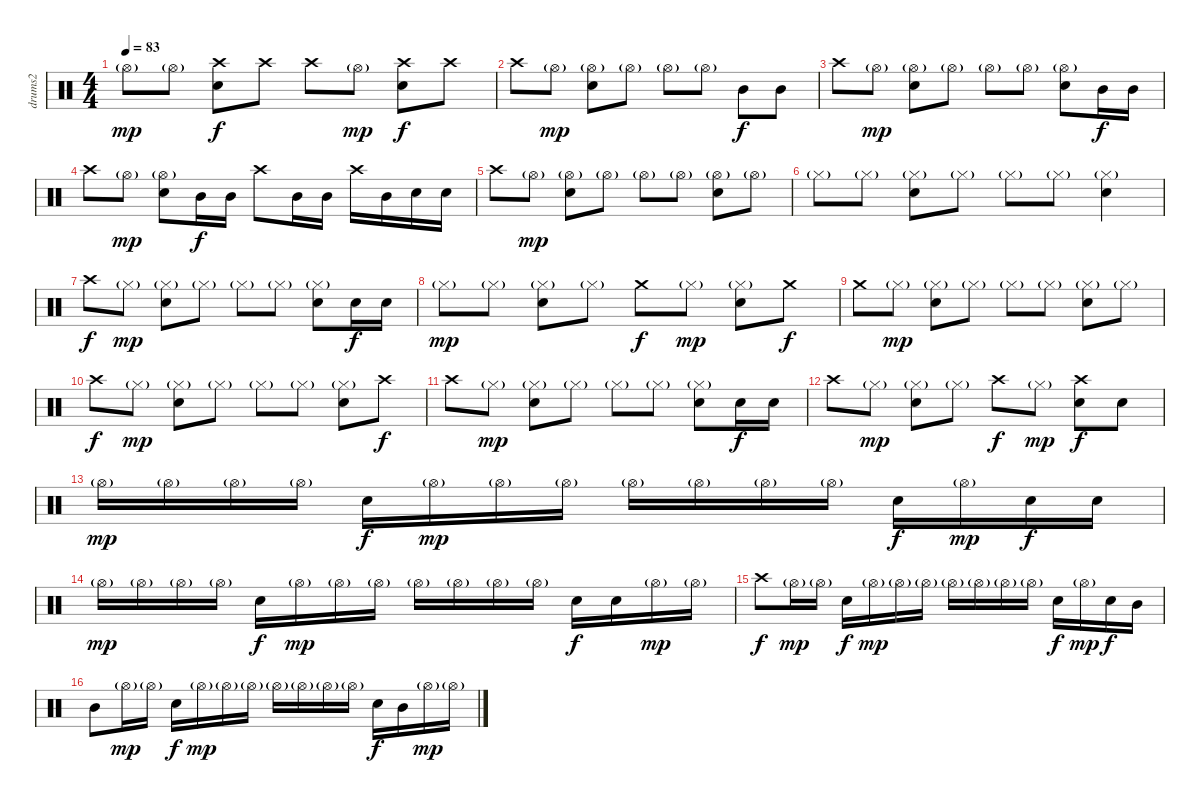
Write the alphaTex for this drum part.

\track ("drums2" "drums2") {instrument percussion}
\staff {score}
\articulation defaults
\ts (4 4)
\tempo 83
\clef neutral
\ks c "Hi-Hat (open)"{g}.8{dy mp} "Hi-Hat (open)"{g}.8
("Crash high (hit)" "Snare (hit) 2").8{dy f} "Crash high (hit)".8 "Crash high (hit)".8 "Hi-Hat (open)"{g}.8{dy mp} ("Crash high (hit)" "Snare (hit) 2").8{dy f} "Crash high (hit)".8 |
"Crash high (hit)".8 "Hi-Hat (open)"{g}.8{dy mp} ("Hi-Hat (open)"{g} "Snare (hit) 2").8 "Hi-Hat (open)"{g}.8 "Hi-Hat (open)"{g}.8 "Hi-Hat (open)"{g}.8 "Mid Tom (hit)".8{dy f} "Mid Tom (hit)".8 |
"Crash high (hit)".8 "Hi-Hat (open)"{g}.8{dy mp} ("Hi-Hat (open)"{g} "Snare (hit) 2").8 "Hi-Hat (open)"{g}.8 "Hi-Hat (open)"{g}.8 "Hi-Hat (open)"{g}.8 ("Hi-Hat (open)"{g} "Snare (hit) 2").8 "Mid Tom (hit)".16{dy f} "Mid Tom (hit)".16 |
"Crash high (hit)".8 "Hi-Hat (open)"{g}.8{dy mp} ("Hi-Hat (open)"{g} "Snare (hit) 2").8 "Mid Tom (hit)".16{dy f} "Mid Tom (hit)".16 "Crash high (hit)".8 "Mid Tom (hit)".16 "Mid Tom (hit)".16 "Crash high (hit)".16 "Mid Tom (hit)".16 "Snare (hit) 2".16 "Snare (hit) 2".16 |
"Crash high (hit)".8 "Hi-Hat (open)"{g}.8{dy mp} ("Hi-Hat (open)"{g} "Snare (hit) 2").8 "Hi-Hat (open)"{g}.8 "Hi-Hat (open)"{g}.8 "Hi-Hat (open)"{g}.8 ("Hi-Hat (open)"{g} "Snare (hit) 2").8 "Hi-Hat (open)"{g}.8 |
"Hi-Hat (closed)"{g}.8 "Hi-Hat (closed)"{g}.8 ("Hi-Hat (closed)"{g} "Snare (hit) 2").8 "Hi-Hat (closed)"{g}.8 "Hi-Hat (closed)"{g}.8 "Hi-Hat (closed)"{g}.8 ("Hi-Hat (closed)"{g} "Snare (hit) 2").4 |
"Crash high (hit)".8{dy f} "Hi-Hat (closed)"{g}.8{dy mp} ("Hi-Hat (closed)"{g} "Snare (hit) 2").8 "Hi-Hat (closed)"{g}.8 "Hi-Hat (closed)"{g}.8 "Hi-Hat (closed)"{g}.8 ("Hi-Hat (closed)"{g} "Snare (hit) 2").8 "Snare (hit) 2".16{dy f} "Snare (hit) 2".16 |
"Hi-Hat (closed)"{g}.8{dy mp} "Hi-Hat (closed)"{g}.8 ("Hi-Hat (closed)"{g} "Snare (hit) 2").8 "Hi-Hat (closed)"{g}.8 "Crash medium (hit)".8{dy f} "Hi-Hat (closed)"{g}.8{dy mp} ("Hi-Hat (closed)"{g} "Snare (hit) 2").8 "Crash medium (hit)".8{dy f} |
"Crash medium (hit)".8 "Hi-Hat (closed)"{g}.8{dy mp} ("Hi-Hat (closed)"{g} "Snare (hit) 2").8 "Hi-Hat (closed)"{g}.8 "Hi-Hat (closed)"{g}.8 "Hi-Hat (closed)"{g}.8 ("Hi-Hat (closed)"{g} "Snare (hit) 2").8 "Hi-Hat (closed)"{g}.8 |
"Crash high (hit)".8{dy f} "Hi-Hat (closed)"{g}.8{dy mp} ("Hi-Hat (closed)"{g} "Snare (hit) 2").8 "Hi-Hat (closed)"{g}.8 "Hi-Hat (closed)"{g}.8 "Hi-Hat (closed)"{g}.8 ("Hi-Hat (closed)"{g} "Snare (hit) 2").8 "Crash high (hit)".8{dy f} |
"Crash high (hit)".8 "Hi-Hat (closed)"{g}.8{dy mp} ("Hi-Hat (closed)"{g} "Snare (hit) 2").8 "Hi-Hat (closed)"{g}.8 "Hi-Hat (closed)"{g}.8 "Hi-Hat (closed)"{g}.8 ("Hi-Hat (closed)"{g} "Snare (hit) 2").8 "Snare (hit) 2".16{dy f} "Snare (hit) 2".16 |
"Crash high (hit)".8 "Hi-Hat (closed)"{g}.8{dy mp} ("Hi-Hat (closed)"{g} "Snare (hit) 2").8 "Hi-Hat (closed)"{g}.8 "Crash high (hit)".8{dy f} "Hi-Hat (closed)"{g}.8{dy mp} ("Crash high (hit)" "Snare (hit) 2").8{dy f} "Snare (hit) 2".8 |
"Hi-Hat (open)"{g}.16{dy mp} "Hi-Hat (open)"{g}.16 "Hi-Hat (open)"{g}.16 "Hi-Hat (open)"{g}.16 "Snare (hit) 2".16{dy f} "Hi-Hat (open)"{g}.16{dy mp} "Hi-Hat (open)"{g}.16 "Hi-Hat (open)"{g}.16 "Hi-Hat (open)"{g}.16 "Hi-Hat (open)"{g}.16 "Hi-Hat (open)"{g}.16 "Hi-Hat (open)"{g}.16 "Snare (hit) 2".16{dy f} "Hi-Hat (open)"{g}.16{dy mp} "Snare (hit) 2".16{dy f} "Snare (hit) 2".16 |
"Hi-Hat (open)"{g}.16{dy mp} "Hi-Hat (open)"{g}.16 "Hi-Hat (open)"{g}.16 "Hi-Hat (open)"{g}.16 "Snare (hit) 2".16{dy f} "Hi-Hat (open)"{g}.16{dy mp} "Hi-Hat (open)"{g}.16 "Hi-Hat (open)"{g}.16 "Hi-Hat (open)"{g}.16 "Hi-Hat (open)"{g}.16 "Hi-Hat (open)"{g}.16 "Hi-Hat (open)"{g}.16 "Snare (hit) 2".16{dy f} "Snare (hit) 2".16 "Hi-Hat (open)"{g}.16{dy mp} "Hi-Hat (open)"{g}.16 |
"Crash high (hit)".8{dy f} "Hi-Hat (open)"{g}.16{dy mp} "Hi-Hat (open)"{g}.16 "Snare (hit) 2".16{dy f} "Hi-Hat (open)"{g}.16{dy mp} "Hi-Hat (open)"{g}.16 "Hi-Hat (open)"{g}.16 "Hi-Hat (open)"{g}.16 "Hi-Hat (open)"{g}.16 "Hi-Hat (open)"{g}.16 "Hi-Hat (open)"{g}.16 "Snare (hit) 2".16{dy f} "Hi-Hat (open)"{g}.16{dy mp} "Snare (hit) 2".16{dy f} "Mid Tom (hit)".16 |
"Mid Tom (hit)".8 "Hi-Hat (open)"{g}.16{dy mp} "Hi-Hat (open)"{g}.16 "Snare (hit) 2".16{dy f} "Hi-Hat (open)"{g}.16{dy mp} "Hi-Hat (open)"{g}.16 "Hi-Hat (open)"{g}.16 "Hi-Hat (open)"{g}.16 "Hi-Hat (open)"{g}.16 "Hi-Hat (open)"{g}.16 "Hi-Hat (open)"{g}.16 "Snare (hit) 2".16{dy f} "Mid Tom (hit)".16 "Hi-Hat (open)"{g}.16{dy mp} "Hi-Hat (open)"{g}.16
